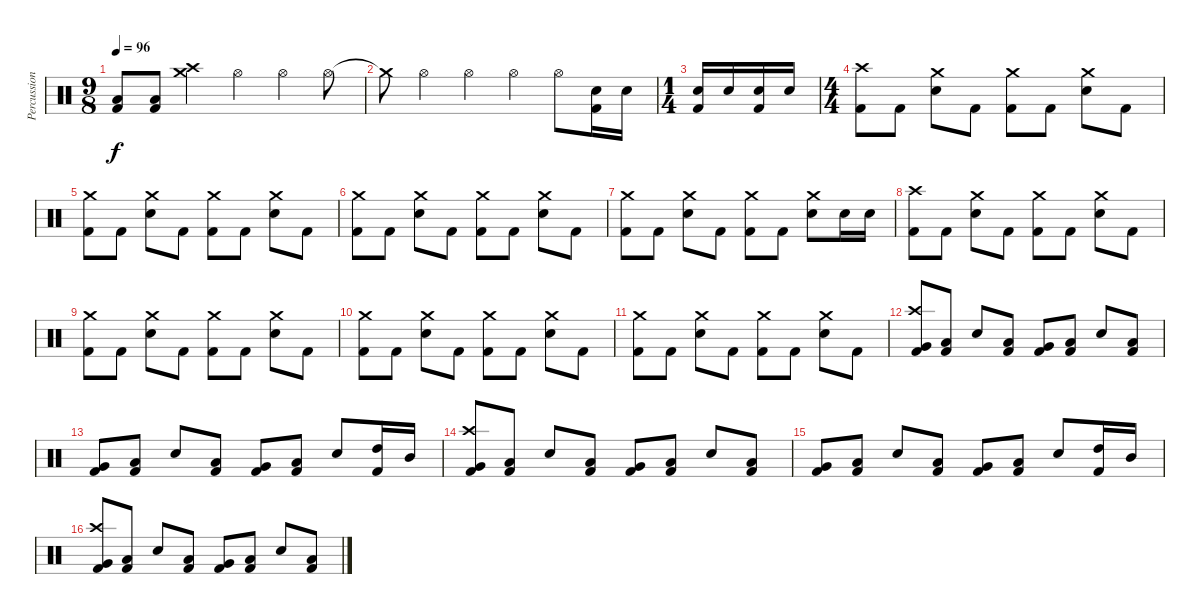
\track ("Percussion" "Percussion") {instrument percussion}
\staff {score}
\articulation defaults
\ts (9 8)
\tempo 96
\clef neutral
\ks c
("Low Floor Tom (hit)" "Kick (hit) 2").8{dy f} ("Low Floor Tom (hit)" "Kick (hit) 2").8 ("Crash medium (hit)" "Crash high (hit)").4 "Hi-Hat (open)".4 "Hi-Hat (open)".4 "Hi-Hat (open)".8 |
"Crash medium (hit)"{t}.8 "Hi-Hat (open)".4 "Hi-Hat (open)".4 "Hi-Hat (open)".4 "Hi-Hat (open)".8 ("Electric Snare (hit)" "Kick (hit) 2").16 "Electric Snare (hit)".16 |
\ts (1 4)
("Electric Snare (hit)" "Kick (hit) 2").16 "Electric Snare (hit)".16 ("Electric Snare (hit)" "Kick (hit) 2").16 "Electric Snare (hit)".16 |
\ts (4 4)
("Crash high (hit)" "Kick (hit) 2").8 "Kick (hit) 2".8 ("Crash medium (hit)" "Electric Snare (hit)").8 "Kick (hit) 2".8 ("Crash medium (hit)" "Kick (hit) 2").8 "Kick (hit) 2".8 ("Crash medium (hit)" "Electric Snare (hit)").8 "Kick (hit) 2".8 |
("Crash medium (hit)" "Kick (hit) 2").8 "Kick (hit) 2".8 ("Crash medium (hit)" "Electric Snare (hit)").8 "Kick (hit) 2".8 ("Crash medium (hit)" "Kick (hit) 2").8 "Kick (hit) 2".8 ("Crash medium (hit)" "Electric Snare (hit)").8 "Kick (hit) 2".8 |
("Crash medium (hit)" "Kick (hit) 2").8 "Kick (hit) 2".8 ("Crash medium (hit)" "Electric Snare (hit)").8 "Kick (hit) 2".8 ("Crash medium (hit)" "Kick (hit) 2").8 "Kick (hit) 2".8 ("Crash medium (hit)" "Electric Snare (hit)").8 "Kick (hit) 2".8 |
("Crash medium (hit)" "Kick (hit) 2").8 "Kick (hit) 2".8 ("Crash medium (hit)" "Electric Snare (hit)").8 "Kick (hit) 2".8 ("Crash medium (hit)" "Kick (hit) 2").8 "Kick (hit) 2".8 ("Crash medium (hit)" "Electric Snare (hit)").8 "Electric Snare (hit)".16 "Electric Snare (hit)".16 |
("Crash high (hit)" "Kick (hit) 2").8 "Kick (hit) 2".8 ("Crash medium (hit)" "Electric Snare (hit)").8 "Kick (hit) 2".8 ("Crash medium (hit)" "Kick (hit) 2").8 "Kick (hit) 2".8 ("Crash medium (hit)" "Electric Snare (hit)").8 "Kick (hit) 2".8 |
("Crash medium (hit)" "Kick (hit) 2").8 "Kick (hit) 2".8 ("Crash medium (hit)" "Electric Snare (hit)").8 "Kick (hit) 2".8 ("Crash medium (hit)" "Kick (hit) 2").8 "Kick (hit) 2".8 ("Crash medium (hit)" "Electric Snare (hit)").8 "Kick (hit) 2".8 |
("Crash medium (hit)" "Kick (hit) 2").8 "Kick (hit) 2".8 ("Crash medium (hit)" "Electric Snare (hit)").8 "Kick (hit) 2".8 ("Crash medium (hit)" "Kick (hit) 2").8 "Kick (hit) 2".8 ("Crash medium (hit)" "Electric Snare (hit)").8 "Kick (hit) 2".8 |
("Crash medium (hit)" "Kick (hit) 2").8 "Kick (hit) 2".8 ("Crash medium (hit)" "Electric Snare (hit)").8 "Kick (hit) 2".8 ("Crash medium (hit)" "Kick (hit) 2").8 "Kick (hit) 2".8 ("Crash medium (hit)" "Electric Snare (hit)").8 "Kick (hit) 2".8 |
("Crash high (hit)" "Very Low Tom (hit)" "Kick (hit) 2").8 ("Low Floor Tom (hit)" "Kick (hit) 2").8 "Electric Snare (hit)".8 ("Low Floor Tom (hit)" "Kick (hit) 2").8 ("Very Low Tom (hit)" "Kick (hit) 2").8 ("Low Floor Tom (hit)" "Kick (hit) 2").8 "Electric Snare (hit)".8 ("Low Floor Tom (hit)" "Kick (hit) 2").8 |
("Very Low Tom (hit)" "Kick (hit) 2").8 ("Low Floor Tom (hit)" "Kick (hit) 2").8 "Electric Snare (hit)".8 ("Low Floor Tom (hit)" "Kick (hit) 2").8 ("Very Low Tom (hit)" "Kick (hit) 2").8 ("Low Floor Tom (hit)" "Kick (hit) 2").8 "Electric Snare (hit)".8 ("High Tom (hit)" "Kick (hit) 2").16 "Mid Tom (hit)".16 |
("Crash high (hit)" "Very Low Tom (hit)" "Kick (hit) 2").8 ("Low Floor Tom (hit)" "Kick (hit) 2").8 "Electric Snare (hit)".8 ("Low Floor Tom (hit)" "Kick (hit) 2").8 ("Very Low Tom (hit)" "Kick (hit) 2").8 ("Low Floor Tom (hit)" "Kick (hit) 2").8 "Electric Snare (hit)".8 ("Low Floor Tom (hit)" "Kick (hit) 2").8 |
("Very Low Tom (hit)" "Kick (hit) 2").8 ("Low Floor Tom (hit)" "Kick (hit) 2").8 "Electric Snare (hit)".8 ("Low Floor Tom (hit)" "Kick (hit) 2").8 ("Very Low Tom (hit)" "Kick (hit) 2").8 ("Low Floor Tom (hit)" "Kick (hit) 2").8 "Electric Snare (hit)".8 ("High Tom (hit)" "Kick (hit) 2").16 "Mid Tom (hit)".16 |
("Crash high (hit)" "Very Low Tom (hit)" "Kick (hit) 2").8 ("Low Floor Tom (hit)" "Kick (hit) 2").8 "Electric Snare (hit)".8 ("Low Floor Tom (hit)" "Kick (hit) 2").8 ("Very Low Tom (hit)" "Kick (hit) 2").8 ("Low Floor Tom (hit)" "Kick (hit) 2").8 "Electric Snare (hit)".8 ("Low Floor Tom (hit)" "Kick (hit) 2").8
